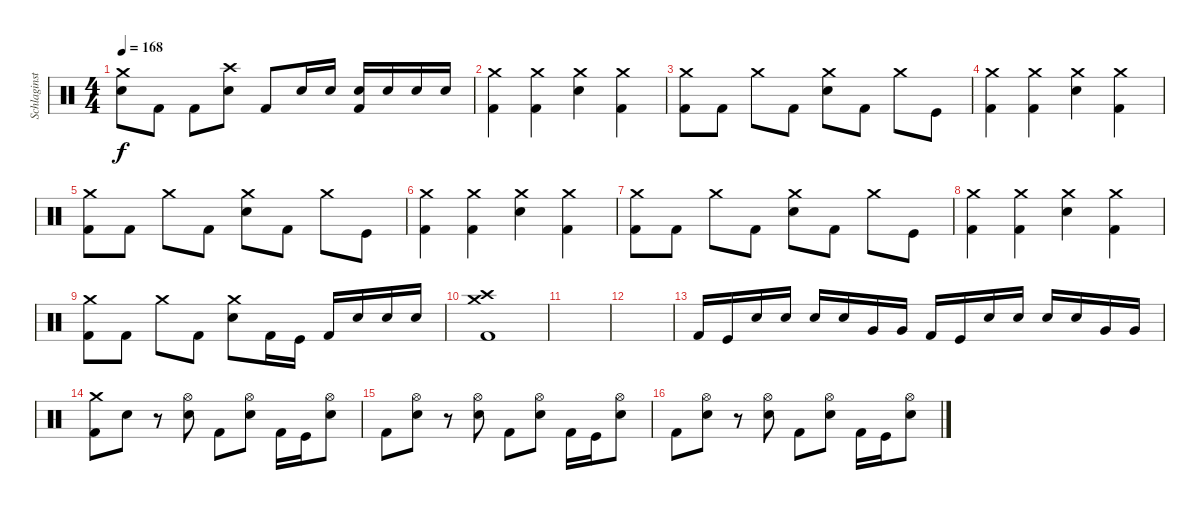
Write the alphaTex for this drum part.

\track ("Schlaginstrumente - Auswahl" "Schlaginst") {instrument percussion}
\staff
\articulation defaults
\ts (4 4)
\tempo 168
\clef neutral
\ks c
("Crash medium (hit)" "Electric Snare (hit)").8{dy f} "Kick (hit) 2".8 "Kick (hit) 2".8 ("Crash high (hit)" "Electric Snare (hit)").8 "Kick (hit) 2".8 "Electric Snare (hit)".16 "Electric Snare (hit)".16 ("Electric Snare (hit)" "Kick (hit) 2").16 "Electric Snare (hit)".16 "Electric Snare (hit)".16 "Electric Snare (hit)".16 |
("Crash medium (hit)" "Kick (hit) 2").4 ("Crash medium (hit)" "Kick (hit) 2").4 ("Crash medium (hit)" "Electric Snare (hit)").4 ("Crash medium (hit)" "Kick (hit) 2").4 |
("Crash medium (hit)" "Kick (hit) 2").8 "Kick (hit) 2".8 "Crash medium (hit)".8 "Kick (hit) 2".8 ("Crash medium (hit)" "Electric Snare (hit)").8 "Kick (hit) 2".8 "Crash medium (hit)".8 "Kick (hit)".8 |
("Crash medium (hit)" "Kick (hit) 2").4 ("Crash medium (hit)" "Kick (hit) 2").4 ("Crash medium (hit)" "Electric Snare (hit)").4 ("Crash medium (hit)" "Kick (hit) 2").4 |
("Crash medium (hit)" "Kick (hit) 2").8 "Kick (hit) 2".8 "Crash medium (hit)".8 "Kick (hit) 2".8 ("Crash medium (hit)" "Electric Snare (hit)").8 "Kick (hit) 2".8 "Crash medium (hit)".8 "Kick (hit)".8 |
("Crash medium (hit)" "Kick (hit) 2").4 ("Crash medium (hit)" "Kick (hit) 2").4 ("Crash medium (hit)" "Electric Snare (hit)").4 ("Crash medium (hit)" "Kick (hit) 2").4 |
("Crash medium (hit)" "Kick (hit) 2").8 "Kick (hit) 2".8 "Crash medium (hit)".8 "Kick (hit) 2".8 ("Crash medium (hit)" "Electric Snare (hit)").8 "Kick (hit) 2".8 "Crash medium (hit)".8 "Kick (hit)".8 |
("Crash medium (hit)" "Kick (hit) 2").4 ("Crash medium (hit)" "Kick (hit) 2").4 ("Crash medium (hit)" "Electric Snare (hit)").4 ("Crash medium (hit)" "Kick (hit) 2").4 |
("Crash medium (hit)" "Kick (hit) 2").8 "Kick (hit) 2".8 "Crash medium (hit)".8 "Kick (hit) 2".8 ("Crash medium (hit)" "Electric Snare (hit)").8 "Kick (hit) 2".16 "Kick (hit)".16 "Kick (hit) 2".16 "Electric Snare (hit)".16 "Electric Snare (hit)".16 "Electric Snare (hit)".16 |
("Crash high (hit)" "Crash medium (hit)" "Kick (hit) 2").1 |
|
|
"Kick (hit) 2".16 "Kick (hit)".16 "Electric Snare (hit)".16 "Electric Snare (hit)".16 "Electric Snare (hit)".16 "Electric Snare (hit)".16 "Very Low Tom (hit)".16 "Very Low Tom (hit)".16 "Kick (hit) 2".16 "Kick (hit)".16 "Electric Snare (hit)".16 "Electric Snare (hit)".16 "Electric Snare (hit)".16 "Electric Snare (hit)".16 "Very Low Tom (hit)".16 "Very Low Tom (hit)".16 |
("Crash medium (hit)" "Kick (hit) 2").8 "Electric Snare (hit)".8 r.8 ("Hi-Hat (open)" "Electric Snare (hit)").8 "Kick (hit) 2".8 ("Hi-Hat (open)" "Electric Snare (hit)").8 "Kick (hit) 2".16 "Kick (hit)".16 ("Hi-Hat (open)" "Electric Snare (hit)").8 |
"Kick (hit) 2".8 ("Hi-Hat (open)" "Electric Snare (hit)").8 r.8 ("Hi-Hat (open)" "Electric Snare (hit)").8 "Kick (hit) 2".8 ("Hi-Hat (open)" "Electric Snare (hit)").8 "Kick (hit) 2".16 "Kick (hit)".16 ("Hi-Hat (open)" "Electric Snare (hit)").8 |
"Kick (hit) 2".8 ("Hi-Hat (open)" "Electric Snare (hit)").8 r.8 ("Hi-Hat (open)" "Electric Snare (hit)").8 "Kick (hit) 2".8 ("Hi-Hat (open)" "Electric Snare (hit)").8 "Kick (hit) 2".16 "Kick (hit)".16 ("Hi-Hat (open)" "Electric Snare (hit)").8
